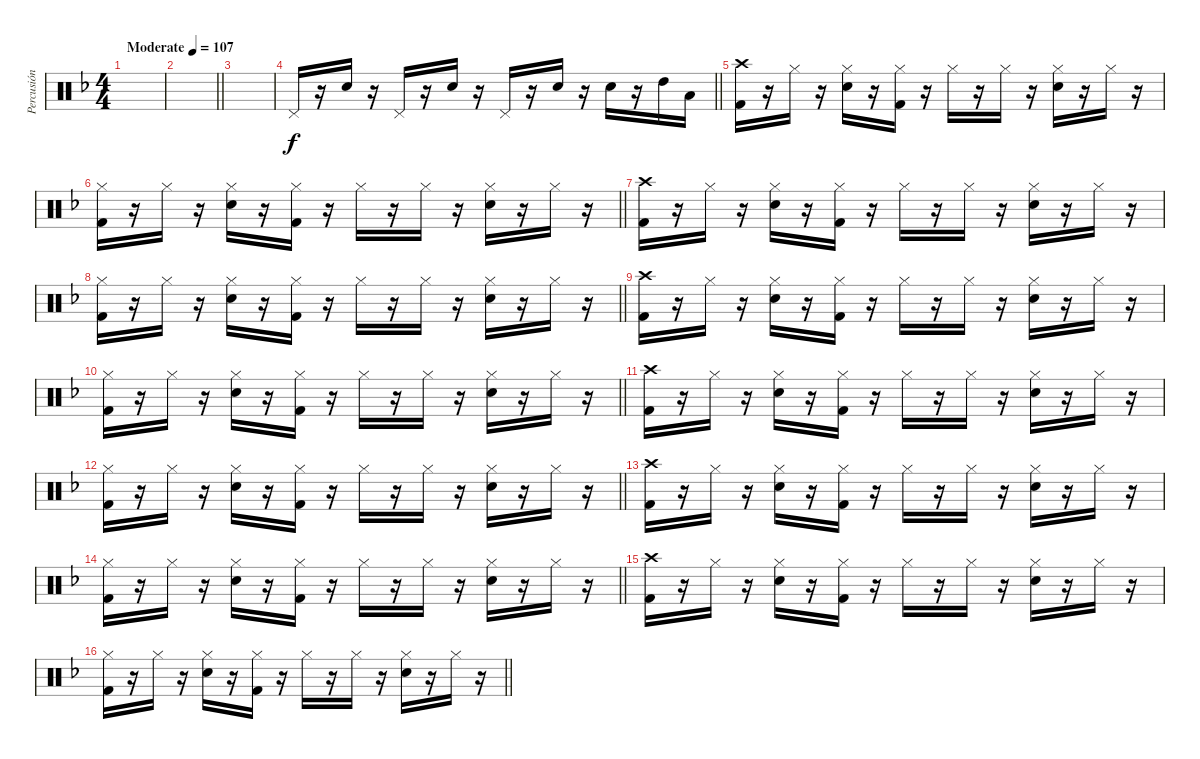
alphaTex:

\track ("Percusión" "Percusión") {instrument percussion}
\staff {score}
\articulation defaults
\ts (4 4)
\tempo (107 "Moderate")
\clef neutral
\ks f
|
\barLineRight lightlight
|
|
\barLineRight lightlight "Pedal Hi-Hat (hit)".16
r.16 "Snare (hit)".16 r.16 "Pedal Hi-Hat (hit)".16 r.16 "Snare (hit)".16 r.16 "Pedal Hi-Hat (hit)".16 r.16 "Snare (hit)".16 r.16{volume 9} "Snare (hit) 2".16 r.16 "High Tom (hit)".16 "Low Tom (hit)".16 |
("Crash high (hit)" "Kick (hit) 2").16 r.16 "Hi-Hat (closed)".16 r.16 ("Hi-Hat (closed)" "Snare (hit) 2").16 r.16 ("Hi-Hat (closed)" "Kick (hit) 2").16 r.16 "Hi-Hat (closed)".16 r.16 "Hi-Hat (closed)".16 r.16 ("Hi-Hat (closed)" "Snare (hit) 2").16 r.16 "Hi-Hat (closed)".16 r.16 |
\barLineRight lightlight
("Hi-Hat (closed)" "Kick (hit) 2").16 r.16 "Hi-Hat (closed)".16 r.16 ("Hi-Hat (closed)" "Snare (hit) 2").16 r.16 ("Hi-Hat (closed)" "Kick (hit) 2").16 r.16 "Hi-Hat (closed)".16 r.16 "Hi-Hat (closed)".16 r.16 ("Hi-Hat (closed)" "Snare (hit) 2").16 r.16 "Hi-Hat (closed)".16 r.16 |
("Crash high (hit)" "Kick (hit) 2").16 r.16 "Hi-Hat (closed)".16 r.16 ("Hi-Hat (closed)" "Snare (hit) 2").16 r.16 ("Hi-Hat (closed)" "Kick (hit) 2").16 r.16 "Hi-Hat (closed)".16 r.16 "Hi-Hat (closed)".16 r.16 ("Hi-Hat (closed)" "Snare (hit) 2").16 r.16 "Hi-Hat (closed)".16 r.16 |
\barLineRight lightlight
("Hi-Hat (closed)" "Kick (hit) 2").16 r.16 "Hi-Hat (closed)".16 r.16 ("Hi-Hat (closed)" "Snare (hit) 2").16 r.16 ("Hi-Hat (closed)" "Kick (hit) 2").16 r.16 "Hi-Hat (closed)".16 r.16 "Hi-Hat (closed)".16 r.16 ("Hi-Hat (closed)" "Snare (hit) 2").16 r.16 "Hi-Hat (closed)".16 r.16 |
("Crash high (hit)" "Kick (hit) 2").16 r.16 "Hi-Hat (closed)".16 r.16 ("Hi-Hat (closed)" "Snare (hit) 2").16 r.16 ("Hi-Hat (closed)" "Kick (hit) 2").16 r.16 "Hi-Hat (closed)".16 r.16 "Hi-Hat (closed)".16 r.16 ("Hi-Hat (closed)" "Snare (hit) 2").16 r.16 "Hi-Hat (closed)".16 r.16 |
\barLineRight lightlight
("Hi-Hat (closed)" "Kick (hit) 2").16 r.16 "Hi-Hat (closed)".16 r.16 ("Hi-Hat (closed)" "Snare (hit) 2").16 r.16 ("Hi-Hat (closed)" "Kick (hit) 2").16 r.16 "Hi-Hat (closed)".16 r.16 "Hi-Hat (closed)".16 r.16 ("Hi-Hat (closed)" "Snare (hit) 2").16 r.16 "Hi-Hat (closed)".16 r.16 |
("Crash high (hit)" "Kick (hit) 2").16 r.16 "Hi-Hat (closed)".16 r.16 ("Hi-Hat (closed)" "Snare (hit) 2").16 r.16 ("Hi-Hat (closed)" "Kick (hit) 2").16 r.16 "Hi-Hat (closed)".16 r.16 "Hi-Hat (closed)".16 r.16 ("Hi-Hat (closed)" "Snare (hit) 2").16 r.16 "Hi-Hat (closed)".16 r.16 |
\barLineRight lightlight
("Hi-Hat (closed)" "Kick (hit) 2").16 r.16 "Hi-Hat (closed)".16 r.16 ("Hi-Hat (closed)" "Snare (hit) 2").16 r.16 ("Hi-Hat (closed)" "Kick (hit) 2").16 r.16 "Hi-Hat (closed)".16 r.16 "Hi-Hat (closed)".16 r.16 ("Hi-Hat (closed)" "Snare (hit) 2").16 r.16 "Hi-Hat (closed)".16 r.16 |
("Crash high (hit)" "Kick (hit) 2").16 r.16 "Hi-Hat (closed)".16 r.16 ("Hi-Hat (closed)" "Snare (hit) 2").16 r.16 ("Hi-Hat (closed)" "Kick (hit) 2").16 r.16 "Hi-Hat (closed)".16 r.16 "Hi-Hat (closed)".16 r.16 ("Hi-Hat (closed)" "Snare (hit) 2").16 r.16 "Hi-Hat (closed)".16 r.16 |
\barLineRight lightlight
("Hi-Hat (closed)" "Kick (hit) 2").16 r.16 "Hi-Hat (closed)".16 r.16 ("Hi-Hat (closed)" "Snare (hit) 2").16 r.16 ("Hi-Hat (closed)" "Kick (hit) 2").16 r.16 "Hi-Hat (closed)".16 r.16 "Hi-Hat (closed)".16 r.16 ("Hi-Hat (closed)" "Snare (hit) 2").16 r.16 "Hi-Hat (closed)".16 r.16 |
("Crash high (hit)" "Kick (hit) 2").16 r.16 "Hi-Hat (closed)".16 r.16 ("Hi-Hat (closed)" "Snare (hit) 2").16 r.16 ("Hi-Hat (closed)" "Kick (hit) 2").16 r.16 "Hi-Hat (closed)".16 r.16 "Hi-Hat (closed)".16 r.16 ("Hi-Hat (closed)" "Snare (hit) 2").16 r.16 "Hi-Hat (closed)".16 r.16 |
\barLineRight lightlight
("Hi-Hat (closed)" "Kick (hit) 2").16 r.16 "Hi-Hat (closed)".16 r.16 ("Hi-Hat (closed)" "Snare (hit) 2").16 r.16 ("Hi-Hat (closed)" "Kick (hit) 2").16 r.16 "Hi-Hat (closed)".16 r.16 "Hi-Hat (closed)".16 r.16 ("Hi-Hat (closed)" "Snare (hit) 2").16 r.16 "Hi-Hat (closed)".16 r.16
